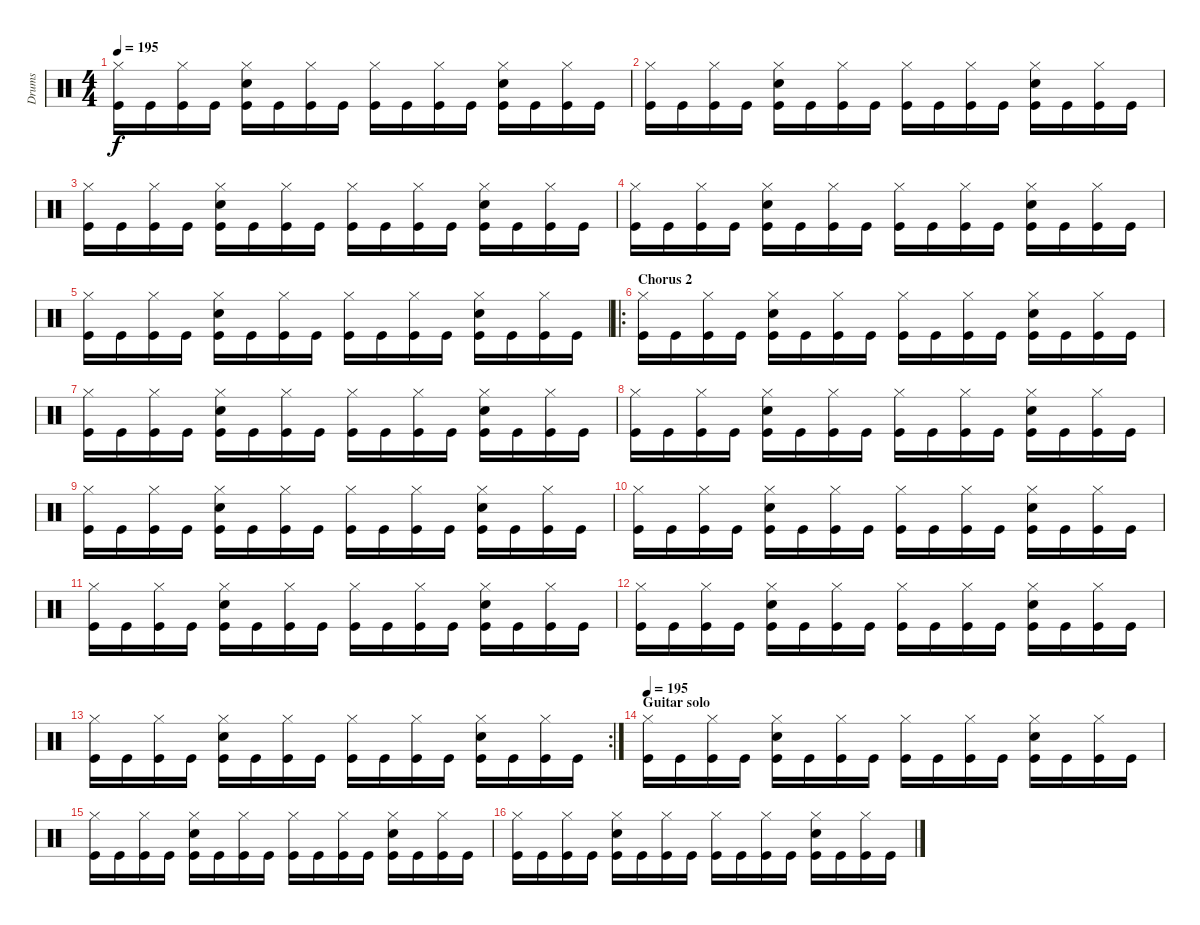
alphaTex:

\track ("Drums" "Drums") {instrument percussion}
\staff {score}
\articulation defaults
\ts (4 4)
\tempo 195
\clef neutral
\ks c
("Hi-Hat (closed)" "Kick (hit)").16{dy f} "Kick (hit)".16 ("Hi-Hat (closed)" "Kick (hit)").16 "Kick (hit)".16 ("Hi-Hat (closed)" "Snare (hit) 2" "Kick (hit)").16 "Kick (hit)".16 ("Hi-Hat (closed)" "Kick (hit)").16 "Kick (hit)".16 ("Hi-Hat (closed)" "Kick (hit)").16 "Kick (hit)".16 ("Hi-Hat (closed)" "Kick (hit)").16 "Kick (hit)".16 ("Hi-Hat (closed)" "Snare (hit) 2" "Kick (hit)").16 "Kick (hit)".16 ("Hi-Hat (closed)" "Kick (hit)").16 "Kick (hit)".16 |
("Hi-Hat (closed)" "Kick (hit)").16 "Kick (hit)".16 ("Hi-Hat (closed)" "Kick (hit)").16 "Kick (hit)".16 ("Hi-Hat (closed)" "Snare (hit) 2" "Kick (hit)").16 "Kick (hit)".16 ("Hi-Hat (closed)" "Kick (hit)").16 "Kick (hit)".16 ("Hi-Hat (closed)" "Kick (hit)").16 "Kick (hit)".16 ("Hi-Hat (closed)" "Kick (hit)").16 "Kick (hit)".16 ("Hi-Hat (closed)" "Snare (hit) 2" "Kick (hit)").16 "Kick (hit)".16 ("Hi-Hat (closed)" "Kick (hit)").16 "Kick (hit)".16 |
("Hi-Hat (closed)" "Kick (hit)").16 "Kick (hit)".16 ("Hi-Hat (closed)" "Kick (hit)").16 "Kick (hit)".16 ("Hi-Hat (closed)" "Snare (hit) 2" "Kick (hit)").16 "Kick (hit)".16 ("Hi-Hat (closed)" "Kick (hit)").16 "Kick (hit)".16 ("Hi-Hat (closed)" "Kick (hit)").16 "Kick (hit)".16 ("Hi-Hat (closed)" "Kick (hit)").16 "Kick (hit)".16 ("Hi-Hat (closed)" "Snare (hit) 2" "Kick (hit)").16 "Kick (hit)".16 ("Hi-Hat (closed)" "Kick (hit)").16 "Kick (hit)".16 |
("Hi-Hat (closed)" "Kick (hit)").16 "Kick (hit)".16 ("Hi-Hat (closed)" "Kick (hit)").16 "Kick (hit)".16 ("Hi-Hat (closed)" "Snare (hit) 2" "Kick (hit)").16 "Kick (hit)".16 ("Hi-Hat (closed)" "Kick (hit)").16 "Kick (hit)".16 ("Hi-Hat (closed)" "Kick (hit)").16 "Kick (hit)".16 ("Hi-Hat (closed)" "Kick (hit)").16 "Kick (hit)".16 ("Hi-Hat (closed)" "Snare (hit) 2" "Kick (hit)").16 "Kick (hit)".16 ("Hi-Hat (closed)" "Kick (hit)").16 "Kick (hit)".16 |
("Hi-Hat (closed)" "Kick (hit)").16 "Kick (hit)".16 ("Hi-Hat (closed)" "Kick (hit)").16 "Kick (hit)".16 ("Hi-Hat (closed)" "Snare (hit) 2" "Kick (hit)").16 "Kick (hit)".16 ("Hi-Hat (closed)" "Kick (hit)").16 "Kick (hit)".16 ("Hi-Hat (closed)" "Kick (hit)").16 "Kick (hit)".16 ("Hi-Hat (closed)" "Kick (hit)").16 "Kick (hit)".16 ("Hi-Hat (closed)" "Snare (hit) 2" "Kick (hit)").16 "Kick (hit)".16 ("Hi-Hat (closed)" "Kick (hit)").16 "Kick (hit)".16 |
\ro
\section ("" "Chorus 2")
("Hi-Hat (closed)" "Kick (hit)").16 "Kick (hit)".16 ("Hi-Hat (closed)" "Kick (hit)").16 "Kick (hit)".16 ("Hi-Hat (closed)" "Snare (hit) 2" "Kick (hit)").16 "Kick (hit)".16 ("Hi-Hat (closed)" "Kick (hit)").16 "Kick (hit)".16 ("Hi-Hat (closed)" "Kick (hit)").16 "Kick (hit)".16 ("Hi-Hat (closed)" "Kick (hit)").16 "Kick (hit)".16 ("Hi-Hat (closed)" "Snare (hit) 2" "Kick (hit)").16 "Kick (hit)".16 ("Hi-Hat (closed)" "Kick (hit)").16 "Kick (hit)".16 |
("Hi-Hat (closed)" "Kick (hit)").16 "Kick (hit)".16 ("Hi-Hat (closed)" "Kick (hit)").16 "Kick (hit)".16 ("Hi-Hat (closed)" "Snare (hit) 2" "Kick (hit)").16 "Kick (hit)".16 ("Hi-Hat (closed)" "Kick (hit)").16 "Kick (hit)".16 ("Hi-Hat (closed)" "Kick (hit)").16 "Kick (hit)".16 ("Hi-Hat (closed)" "Kick (hit)").16 "Kick (hit)".16 ("Hi-Hat (closed)" "Snare (hit) 2" "Kick (hit)").16 "Kick (hit)".16 ("Hi-Hat (closed)" "Kick (hit)").16 "Kick (hit)".16 |
("Hi-Hat (closed)" "Kick (hit)").16 "Kick (hit)".16 ("Hi-Hat (closed)" "Kick (hit)").16 "Kick (hit)".16 ("Hi-Hat (closed)" "Snare (hit) 2" "Kick (hit)").16 "Kick (hit)".16 ("Hi-Hat (closed)" "Kick (hit)").16 "Kick (hit)".16 ("Hi-Hat (closed)" "Kick (hit)").16 "Kick (hit)".16 ("Hi-Hat (closed)" "Kick (hit)").16 "Kick (hit)".16 ("Hi-Hat (closed)" "Snare (hit) 2" "Kick (hit)").16 "Kick (hit)".16 ("Hi-Hat (closed)" "Kick (hit)").16 "Kick (hit)".16 |
("Hi-Hat (closed)" "Kick (hit)").16 "Kick (hit)".16 ("Hi-Hat (closed)" "Kick (hit)").16 "Kick (hit)".16 ("Hi-Hat (closed)" "Snare (hit) 2" "Kick (hit)").16 "Kick (hit)".16 ("Hi-Hat (closed)" "Kick (hit)").16 "Kick (hit)".16 ("Hi-Hat (closed)" "Kick (hit)").16 "Kick (hit)".16 ("Hi-Hat (closed)" "Kick (hit)").16 "Kick (hit)".16 ("Hi-Hat (closed)" "Snare (hit) 2" "Kick (hit)").16 "Kick (hit)".16 ("Hi-Hat (closed)" "Kick (hit)").16 "Kick (hit)".16 |
("Hi-Hat (closed)" "Kick (hit)").16 "Kick (hit)".16 ("Hi-Hat (closed)" "Kick (hit)").16 "Kick (hit)".16 ("Hi-Hat (closed)" "Snare (hit) 2" "Kick (hit)").16 "Kick (hit)".16 ("Hi-Hat (closed)" "Kick (hit)").16 "Kick (hit)".16 ("Hi-Hat (closed)" "Kick (hit)").16 "Kick (hit)".16 ("Hi-Hat (closed)" "Kick (hit)").16 "Kick (hit)".16 ("Hi-Hat (closed)" "Snare (hit) 2" "Kick (hit)").16 "Kick (hit)".16 ("Hi-Hat (closed)" "Kick (hit)").16 "Kick (hit)".16 |
("Hi-Hat (closed)" "Kick (hit)").16 "Kick (hit)".16 ("Hi-Hat (closed)" "Kick (hit)").16 "Kick (hit)".16 ("Hi-Hat (closed)" "Snare (hit) 2" "Kick (hit)").16 "Kick (hit)".16 ("Hi-Hat (closed)" "Kick (hit)").16 "Kick (hit)".16 ("Hi-Hat (closed)" "Kick (hit)").16 "Kick (hit)".16 ("Hi-Hat (closed)" "Kick (hit)").16 "Kick (hit)".16 ("Hi-Hat (closed)" "Snare (hit) 2" "Kick (hit)").16 "Kick (hit)".16 ("Hi-Hat (closed)" "Kick (hit)").16 "Kick (hit)".16 |
("Hi-Hat (closed)" "Kick (hit)").16 "Kick (hit)".16 ("Hi-Hat (closed)" "Kick (hit)").16 "Kick (hit)".16 ("Hi-Hat (closed)" "Snare (hit) 2" "Kick (hit)").16 "Kick (hit)".16 ("Hi-Hat (closed)" "Kick (hit)").16 "Kick (hit)".16 ("Hi-Hat (closed)" "Kick (hit)").16 "Kick (hit)".16 ("Hi-Hat (closed)" "Kick (hit)").16 "Kick (hit)".16 ("Hi-Hat (closed)" "Snare (hit) 2" "Kick (hit)").16 "Kick (hit)".16 ("Hi-Hat (closed)" "Kick (hit)").16 "Kick (hit)".16 |
\rc 2
("Hi-Hat (closed)" "Kick (hit)").16 "Kick (hit)".16 ("Hi-Hat (closed)" "Kick (hit)").16 "Kick (hit)".16 ("Hi-Hat (closed)" "Snare (hit) 2" "Kick (hit)").16 "Kick (hit)".16 ("Hi-Hat (closed)" "Kick (hit)").16 "Kick (hit)".16 ("Hi-Hat (closed)" "Kick (hit)").16 "Kick (hit)".16 ("Hi-Hat (closed)" "Kick (hit)").16 "Kick (hit)".16 ("Hi-Hat (closed)" "Snare (hit) 2" "Kick (hit)").16 "Kick (hit)".16 ("Hi-Hat (closed)" "Kick (hit)").16 "Kick (hit)".16 |
\section ("" "Guitar solo")
\tempo 195
("Hi-Hat (closed)" "Kick (hit)").16 "Kick (hit)".16 ("Hi-Hat (closed)" "Kick (hit)").16 "Kick (hit)".16 ("Hi-Hat (closed)" "Snare (hit) 2" "Kick (hit)").16 "Kick (hit)".16 ("Hi-Hat (closed)" "Kick (hit)").16 "Kick (hit)".16 ("Hi-Hat (closed)" "Kick (hit)").16 "Kick (hit)".16 ("Hi-Hat (closed)" "Kick (hit)").16 "Kick (hit)".16 ("Hi-Hat (closed)" "Snare (hit) 2" "Kick (hit)").16 "Kick (hit)".16 ("Hi-Hat (closed)" "Kick (hit)").16 "Kick (hit)".16 |
("Hi-Hat (closed)" "Kick (hit)").16 "Kick (hit)".16 ("Hi-Hat (closed)" "Kick (hit)").16 "Kick (hit)".16 ("Hi-Hat (closed)" "Snare (hit) 2" "Kick (hit)").16 "Kick (hit)".16 ("Hi-Hat (closed)" "Kick (hit)").16 "Kick (hit)".16 ("Hi-Hat (closed)" "Kick (hit)").16 "Kick (hit)".16 ("Hi-Hat (closed)" "Kick (hit)").16 "Kick (hit)".16 ("Hi-Hat (closed)" "Snare (hit) 2" "Kick (hit)").16 "Kick (hit)".16 ("Hi-Hat (closed)" "Kick (hit)").16 "Kick (hit)".16 |
("Hi-Hat (closed)" "Kick (hit)").16 "Kick (hit)".16 ("Hi-Hat (closed)" "Kick (hit)").16 "Kick (hit)".16 ("Hi-Hat (closed)" "Snare (hit) 2" "Kick (hit)").16 "Kick (hit)".16 ("Hi-Hat (closed)" "Kick (hit)").16 "Kick (hit)".16 ("Hi-Hat (closed)" "Kick (hit)").16 "Kick (hit)".16 ("Hi-Hat (closed)" "Kick (hit)").16 "Kick (hit)".16 ("Hi-Hat (closed)" "Snare (hit) 2" "Kick (hit)").16 "Kick (hit)".16 ("Hi-Hat (closed)" "Kick (hit)").16 "Kick (hit)".16
